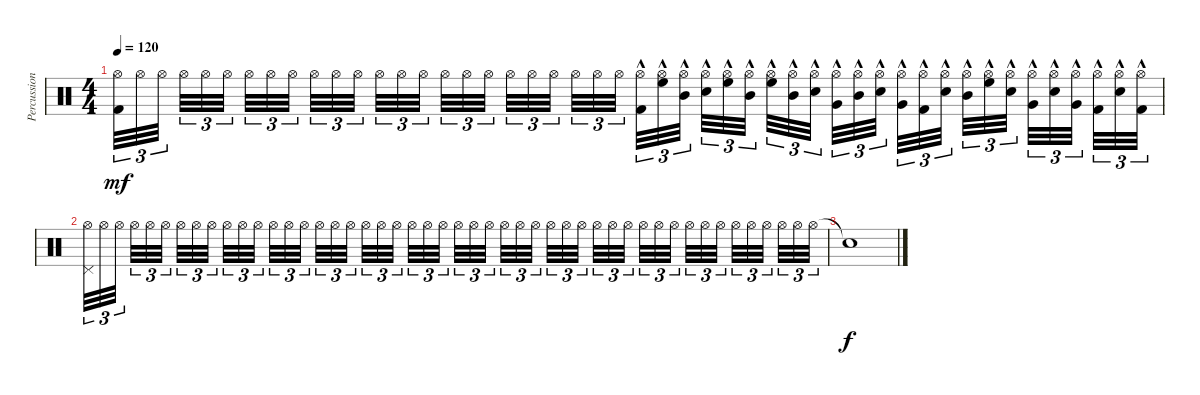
\track ("Percussioni" "Percussion") {instrument percussion}
\staff {score}
\articulation defaults
\ts (4 4)
\tempo 120
\clef neutral
\ks c
("Kick (hit) 2" "Hi-Hat (open)").32{tu (3 2) dy mf} "Hi-Hat (open)".32{tu (3 2)} "Hi-Hat (open)".32{tu (3 2)} "Hi-Hat (open)".32{tu (3 2)} "Hi-Hat (open)".32{tu (3 2)} "Hi-Hat (open)".32{tu (3 2)} "Hi-Hat (open)".32{tu (3 2)} "Hi-Hat (open)".32{tu (3 2)} "Hi-Hat (open)".32{tu (3 2)} "Hi-Hat (open)".32{tu (3 2)} "Hi-Hat (open)".32{tu (3 2)} "Hi-Hat (open)".32{tu (3 2)} "Hi-Hat (open)".32{tu (3 2)} "Hi-Hat (open)".32{tu (3 2)} "Hi-Hat (open)".32{tu (3 2)} "Hi-Hat (open)".32{tu (3 2)} "Hi-Hat (open)".32{tu (3 2)} "Hi-Hat (open)".32{tu (3 2)} "Hi-Hat (open)".32{tu (3 2)} "Hi-Hat (open)".32{tu (3 2)} "Hi-Hat (open)".32{tu (3 2)} "Hi-Hat (open)".32{tu (3 2)} "Hi-Hat (open)".32{tu (3 2)} "Hi-Hat (open)".32{tu (3 2)} ("Kick (hit) 2"{hac} "Hi-Hat (open)").32{tu (3 2)} ("Hi-Hat (open)" "High Floor Tom (hit)"{hac}).32{tu (3 2)} ("Hi-Hat (open)" "Mid Tom (hit)"{hac}).32{tu (3 2)} ("Snare (hit) 2"{hac} "Hi-Hat (open)").32{tu (3 2)} ("Hi-Hat (open)" "High Floor Tom (hit)"{hac}).32{tu (3 2)} ("Hi-Hat (open)" "Mid Tom (hit)"{hac}).32{tu (3 2)} ("Hi-Hat (open)" "High Floor Tom (hit)"{hac}).32{tu (3 2)} ("Hi-Hat (open)" "Mid Tom (hit)"{hac}).32{tu (3 2)} ("Snare (hit) 2"{hac} "Hi-Hat (open)").32{tu (3 2)} ("Very Low Tom (hit)"{hac} "Hi-Hat (open)").32{tu (3 2)} ("Hi-Hat (open)" "Mid Tom (hit)"{hac}).32{tu (3 2)} ("Snare (hit) 2"{hac} "Hi-Hat (open)").32{tu (3 2)} ("Very Low Tom (hit)"{hac} "Hi-Hat (open)").32{tu (3 2)} ("Kick (hit) 2"{hac} "Hi-Hat (open)").32{tu (3 2)} ("Snare (hit) 2"{hac} "Hi-Hat (open)").32{tu (3 2)} ("Hi-Hat (open)" "Mid Tom (hit)"{hac}).32{tu (3 2)} ("Hi-Hat (open)" "High Floor Tom (hit)"{hac}).32{tu (3 2)} ("Snare (hit) 2"{hac} "Hi-Hat (open)").32{tu (3 2)} ("Very Low Tom (hit)"{hac} "Hi-Hat (open)").32{tu (3 2)} ("Snare (hit) 2"{hac} "Hi-Hat (open)").32{tu (3 2)} ("Very Low Tom (hit)"{hac} "Hi-Hat (open)").32{tu (3 2)} ("Kick (hit) 2"{hac} "Hi-Hat (open)").32{tu (3 2)} ("Snare (hit) 2"{hac} "Hi-Hat (open)").32{tu (3 2)} ("Kick (hit) 2"{hac} "Hi-Hat (open)").32{tu (3 2)} |
("Pedal Hi-Hat (hit)" "Hi-Hat (open)").32{tu (3 2)} "Hi-Hat (open)".32{tu (3 2)} "Hi-Hat (open)".32{tu (3 2)} "Hi-Hat (open)".32{tu (3 2)} "Hi-Hat (open)".32{tu (3 2)} "Hi-Hat (open)".32{tu (3 2)} "Hi-Hat (open)".32{tu (3 2)} "Hi-Hat (open)".32{tu (3 2)} "Hi-Hat (open)".32{tu (3 2)} "Hi-Hat (open)".32{tu (3 2)} "Hi-Hat (open)".32{tu (3 2)} "Hi-Hat (open)".32{tu (3 2)} "Hi-Hat (open)".32{tu (3 2)} "Hi-Hat (open)".32{tu (3 2)} "Hi-Hat (open)".32{tu (3 2)} "Hi-Hat (open)".32{tu (3 2)} "Hi-Hat (open)".32{tu (3 2)} "Hi-Hat (open)".32{tu (3 2)} "Hi-Hat (open)".32{tu (3 2)} "Hi-Hat (open)".32{tu (3 2)} "Hi-Hat (open)".32{tu (3 2)} "Hi-Hat (open)".32{tu (3 2)} "Hi-Hat (open)".32{tu (3 2)} "Hi-Hat (open)".32{tu (3 2)} "Hi-Hat (open)".32{tu (3 2)} "Hi-Hat (open)".32{tu (3 2)} "Hi-Hat (open)".32{tu (3 2)} "Hi-Hat (open)".32{tu (3 2)} "Hi-Hat (open)".32{tu (3 2)} "Hi-Hat (open)".32{tu (3 2)} "Hi-Hat (open)".32{tu (3 2)} "Hi-Hat (open)".32{tu (3 2)} "Hi-Hat (open)".32{tu (3 2)} "Hi-Hat (open)".32{tu (3 2)} "Hi-Hat (open)".32{tu (3 2)} "Hi-Hat (open)".32{tu (3 2)} "Hi-Hat (open)".32{tu (3 2)} "Hi-Hat (open)".32{tu (3 2)} "Hi-Hat (open)".32{tu (3 2)} "Hi-Hat (open)".32{tu (3 2)} "Hi-Hat (open)".32{tu (3 2)} "Hi-Hat (open)".32{tu (3 2)} "Hi-Hat (open)".32{tu (3 2)} "Hi-Hat (open)".32{tu (3 2)} "Hi-Hat (open)".32{tu (3 2)} "Hi-Hat (open)".32{tu (3 2)} "Hi-Hat (open)".32{tu (3 2)} "Hi-Hat (open)".32{tu (3 2)} |
"Snare (hit)"{t}.1{dy f}
